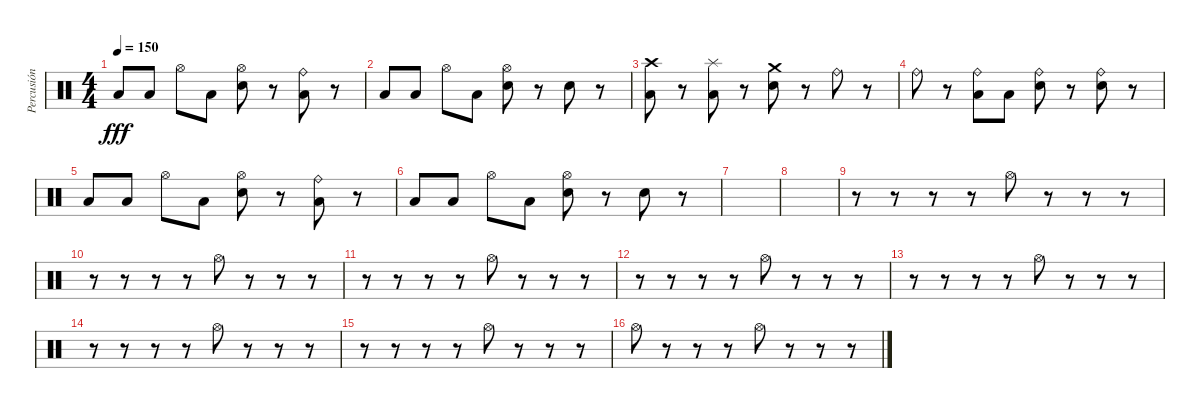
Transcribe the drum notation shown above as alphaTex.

\track ("Percusión" "Percusión") {instrument percussion}
\staff {score}
\articulation defaults
\ts (4 4)
\tempo 150
\clef neutral
\ks c "Low Tom (hit)".8{dy fff} "Low Tom (hit)".8 "Hi-Hat (open)".8 "Low Tom (hit)".8
("Hi-Hat (open)" "Snare (hit) 2").8 r.8 ("Ride (bell)" "Low Tom (hit)").8 r.8 |
"Low Tom (hit)".8 "Low Tom (hit)".8 "Hi-Hat (open)".8 "Low Tom (hit)".8 ("Hi-Hat (open)" "Snare (hit) 2").8 r.8 "Snare (hit) 2".8 r.8 |
("Crash high (hit)" "Low Tom (hit)").8 r.8 ("Splash (hit)" "Low Tom (hit)").8 r.8 ("Crash medium (hit)" "Snare (hit) 2").8 r.8 "Ride (bell)".8 r.8 |
"Ride (bell)".8 r.8 ("Ride (bell)" "Low Tom (hit)").8 "Low Tom (hit)".8 ("Ride (bell)" "Snare (hit) 2").8 r.8 ("Ride (bell)" "Snare (hit) 2").8 r.8 |
"Low Tom (hit)".8 "Low Tom (hit)".8 "Hi-Hat (open)".8 "Low Tom (hit)".8 ("Hi-Hat (open)" "Snare (hit) 2").8 r.8 ("Ride (bell)" "Low Tom (hit)").8 r.8 |
"Low Tom (hit)".8 "Low Tom (hit)".8 "Hi-Hat (open)".8 "Low Tom (hit)".8 ("Hi-Hat (open)" "Snare (hit) 2").8 r.8 "Snare (hit) 2".8 r.8 |
|
|
r.8 r.8 r.8 r.8 "Hi-Hat (open)".8 r.8 r.8 r.8 |
r.8 r.8 r.8 r.8 "Hi-Hat (open)".8 r.8 r.8 r.8 |
r.8 r.8 r.8 r.8 "Hi-Hat (open)".8 r.8 r.8 r.8 |
r.8 r.8 r.8 r.8 "Hi-Hat (open)".8 r.8 r.8 r.8 |
r.8 r.8 r.8 r.8 "Hi-Hat (open)".8 r.8 r.8 r.8 |
r.8 r.8 r.8 r.8 "Hi-Hat (open)".8 r.8 r.8 r.8 |
r.8 r.8 r.8 r.8 "Hi-Hat (open)".8 r.8 r.8 r.8 |
"Hi-Hat (open)".8 r.8 r.8 r.8 "Hi-Hat (open)".8 r.8 r.8 r.8
